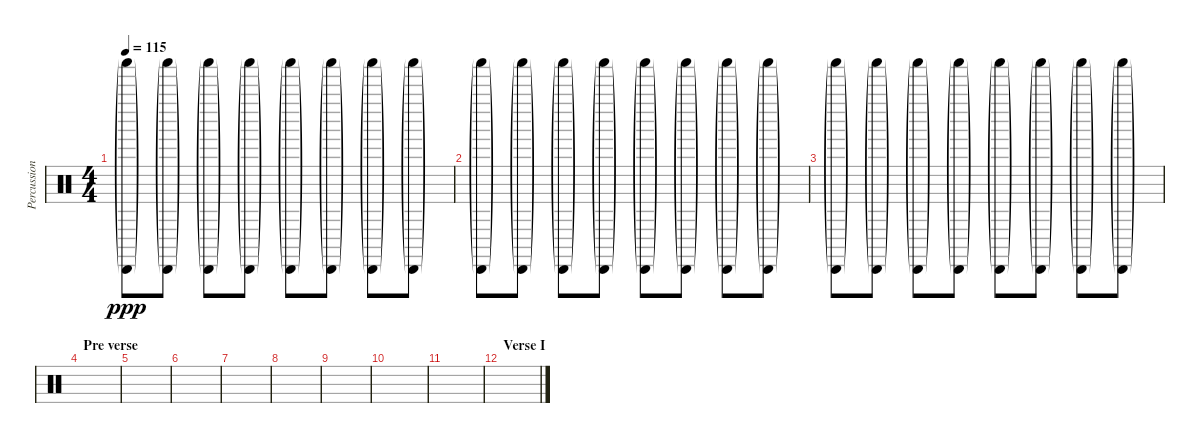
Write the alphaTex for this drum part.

\track ("Percussion - Cabasa" "Percussion") {instrument percussion}
\staff {score}
\articulation defaults
\ts (4 4)
\tempo 115
\clef neutral
\ks c
("Shaker (hit)"{g} "Cabasa (hit)"{g}).8{dy ppp} ("Shaker (hit)"{g} "Cabasa (hit)"{g}).8 ("Shaker (hit)"{g} "Cabasa (hit)"{g}).8 ("Shaker (hit)"{g} "Cabasa (hit)"{g}).8 ("Shaker (hit)"{g} "Cabasa (hit)"{g}).8 ("Shaker (hit)"{g} "Cabasa (hit)"{g}).8 ("Shaker (hit)"{g} "Cabasa (hit)"{g}).8 ("Shaker (hit)"{g} "Cabasa (hit)"{g}).8 |
("Shaker (hit)"{g} "Cabasa (hit)"{g}).8 ("Shaker (hit)"{g} "Cabasa (hit)"{g}).8 ("Shaker (hit)"{g} "Cabasa (hit)"{g}).8 ("Shaker (hit)"{g} "Cabasa (hit)"{g}).8 ("Shaker (hit)"{g} "Cabasa (hit)"{g}).8 ("Shaker (hit)"{g} "Cabasa (hit)"{g}).8 ("Shaker (hit)"{g} "Cabasa (hit)"{g}).8 ("Shaker (hit)"{g} "Cabasa (hit)"{g}).8 |
("Shaker (hit)"{g} "Cabasa (hit)"{g}).8 ("Shaker (hit)"{g} "Cabasa (hit)"{g}).8 ("Shaker (hit)"{g} "Cabasa (hit)"{g}).8 ("Shaker (hit)"{g} "Cabasa (hit)"{g}).8 ("Shaker (hit)"{g} "Cabasa (hit)"{g}).8 ("Shaker (hit)"{g} "Cabasa (hit)"{g}).8 ("Shaker (hit)"{g} "Cabasa (hit)"{g}).8 ("Shaker (hit)"{g} "Cabasa (hit)"{g}).8 |
\section ("" "Pre verse")
|
|
|
|
|
|
|
|
\section ("" "Verse I")
